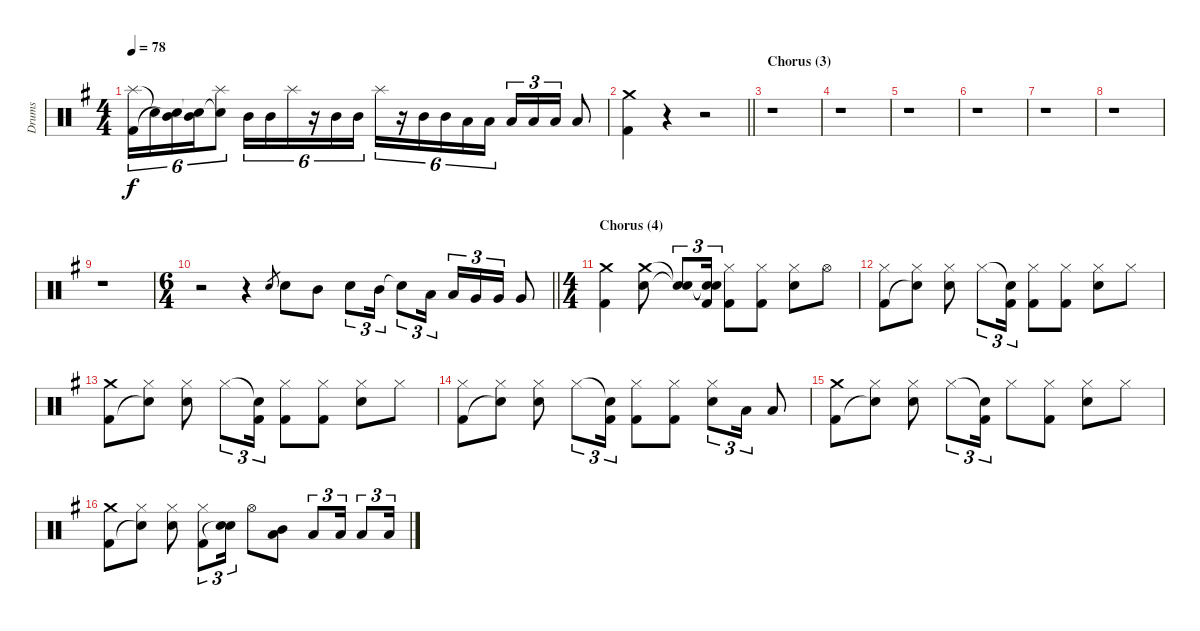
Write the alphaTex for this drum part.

\track ("Drums" "Drums") {instrument percussion}
\staff {score}
\articulation defaults
\ts (4 4)
\tempo 78
\clef neutral
\ks g
("Splash (hit)" "Kick (hit) 2").16{tu (6 4) dy f} "Snare (hit)"{t}.16{tu (6 4)} ("Mid Tom (hit)" "Snare (hit)"{t}).16{tu (6 4)} ("Mid Tom (hit)" "Snare (hit)"{t}).16{tu (6 4)} ("Splash (hit)" "Snare (hit)"{t}).8{tu (6 4)} "Mid Tom (hit)".16{tu (6 4)} "Mid Tom (hit)".16{tu (6 4)} "Splash (hit)".16{tu (6 4)} r.16{tu (6 4)} "Mid Tom (hit)".16{tu (6 4)} "Mid Tom (hit)".16{tu (6 4)} "Splash (hit)".16{tu (6 4)} r.16{tu (6 4)} "Mid Tom (hit)".16{tu (6 4)} "Mid Tom (hit)".16{tu (6 4)} "Low Tom (hit)".16{tu (6 4)} "Low Tom (hit)".16{tu (6 4)} "Low Tom (hit)".16{tu (3 2)} "Low Tom (hit)".16{tu (3 2)} "Low Tom (hit)".16{tu (3 2)} "Low Tom (hit)".8 |
\barLineRight lightlight
("Crash medium (hit)" "Kick (hit) 2").4 r.4 r.2 |
\section ("" "Chorus (3)")
r.1 |
r.1 |
r.1 |
r.1 |
r.1 |
r.1 |
r.1 |
\ts (6 4)
\barLineRight lightlight
r.2 r.4 "Electric Snare (hit)".8{gr} "Electric Snare (hit)".8 "Mid Tom (hit)".8 "Electric Snare (hit)".8{tu (3 2)} "Mid Tom (hit)".16{tu (3 2)} "Snare (hit)"{t}.8{tu (3 2)} "Low Tom (hit)".16{tu (3 2)} "Low Tom (hit)".16{tu (3 2)} "Very Low Tom (hit)".16{tu (3 2)} "Very Low Tom (hit)".16{tu (3 2)} "Very Low Tom (hit)".8 |
\ts (4 4)
\section ("" "Chorus (4)")
("Crash medium (hit)" "Kick (hit) 2").4 ("Crash medium (hit)" "Electric Snare (hit)").8 ("Snare (hit)"{t} "Snare (hit)"{t}).8{tu (3 2)} ("Snare (hit)"{t} "Snare (hit)"{t} "Kick (hit) 2").16{tu (3 2)} ("Hi-Hat (closed)" "Kick (hit) 2").8 ("Hi-Hat (closed)" "Kick (hit) 2").8 ("Hi-Hat (closed)" "Electric Snare (hit)").8 "Hi-Hat (open)".8 |
("Hi-Hat (closed)" "Kick (hit) 2").8 ("Hi-Hat (closed)" "Snare (hit)"{t}).8 ("Hi-Hat (closed)" "Electric Snare (hit)").8 "Hi-Hat (closed)".8{tu (3 2)} ("Snare (hit)"{t} "Kick (hit) 2").16{tu (3 2)} ("Hi-Hat (closed)" "Kick (hit) 2").8 ("Hi-Hat (closed)" "Kick (hit) 2").8 ("Hi-Hat (closed)" "Electric Snare (hit)").8 "Hi-Hat (closed)".8 |
("Crash medium (hit)" "Kick (hit) 2").8 ("Hi-Hat (closed)" "Snare (hit)"{t}).8 ("Hi-Hat (closed)" "Electric Snare (hit)").8 "Hi-Hat (closed)".8{tu (3 2)} ("Snare (hit)"{t} "Kick (hit) 2").16{tu (3 2)} ("Hi-Hat (closed)" "Kick (hit) 2").8 ("Hi-Hat (closed)" "Kick (hit) 2").8 ("Hi-Hat (closed)" "Electric Snare (hit)").8 "Hi-Hat (closed)".8 |
("Hi-Hat (closed)" "Kick (hit) 2").8 ("Hi-Hat (closed)" "Snare (hit)"{t}).8 ("Hi-Hat (closed)" "Electric Snare (hit)").8 "Hi-Hat (closed)".8{tu (3 2)} ("Snare (hit)"{t} "Kick (hit) 2").16{tu (3 2)} ("Hi-Hat (closed)" "Kick (hit) 2").8 ("Hi-Hat (closed)" "Kick (hit) 2").8 ("Hi-Hat (closed)" "Electric Snare (hit)").8{tu (3 2)} "Low Tom (hit)".16{tu (3 2)} "Low Tom (hit)".8 |
("Crash medium (hit)" "Kick (hit) 2").8 ("Hi-Hat (closed)" "Snare (hit)"{t}).8 ("Hi-Hat (closed)" "Electric Snare (hit)").8 "Hi-Hat (closed)".8{tu (3 2)} ("Snare (hit)"{t} "Kick (hit) 2").16{tu (3 2)} "Hi-Hat (closed)".8 ("Hi-Hat (closed)" "Kick (hit) 2").8 ("Hi-Hat (closed)" "Electric Snare (hit)").8 "Hi-Hat (closed)".8 |
("Crash medium (hit)" "Kick (hit) 2").8 ("Hi-Hat (closed)" "Snare (hit)"{t}).8 ("Hi-Hat (closed)" "Electric Snare (hit)").8 ("Hi-Hat (closed)" "Kick (hit) 2").8{tu (3 2)} ("Electric Snare (hit)" "Snare (hit)"{t}).16{tu (3 2)} "Hi-Hat (open)".8 ("Mid Tom (hit)" "Low Tom (hit)").8 "Low Tom (hit)".8{tu (3 2)} "Low Tom (hit)".16{tu (3 2)} "Low Tom (hit)".8{tu (3 2)} "Low Tom (hit)".16{tu (3 2)}
